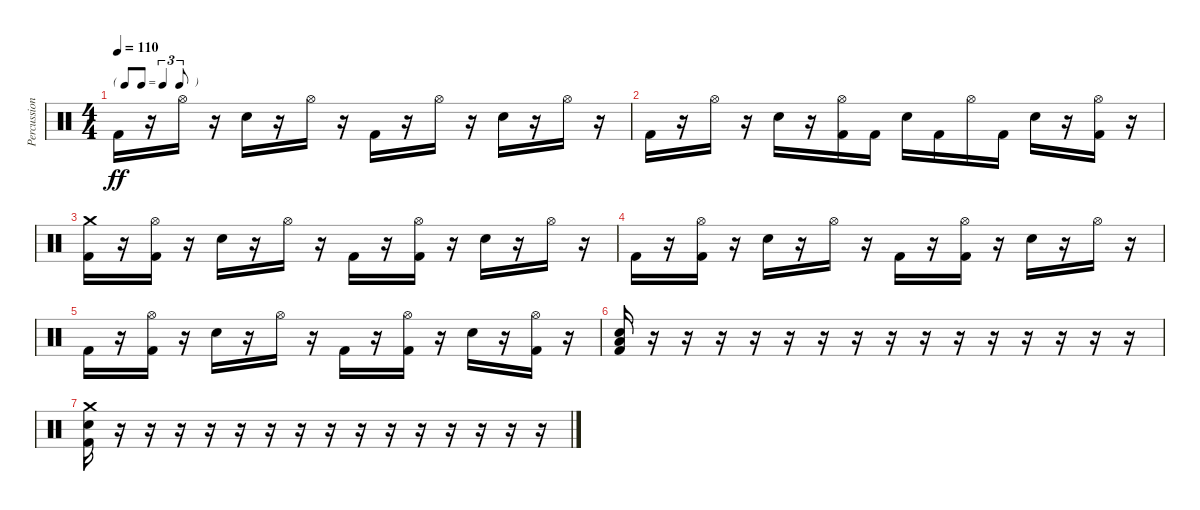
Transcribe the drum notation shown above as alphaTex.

\track ("Percussion" "Percussion") {instrument percussion}
\staff {score}
\articulation defaults
\ts (4 4)
\tf triplet8th
\tempo 110
\clef neutral
\ks c "Kick (hit) 2".16{dy ff}
r.16 "Hi-Hat (open)".16 r.16 "Electric Snare (hit)".16 r.16 "Hi-Hat (open)".16 r.16 "Kick (hit) 2".16 r.16 "Hi-Hat (open)".16 r.16 "Electric Snare (hit)".16 r.16 "Hi-Hat (open)".16 r.16 |
"Kick (hit) 2".16 r.16 "Hi-Hat (open)".16 r.16 "Electric Snare (hit)".16 r.16 ("Hi-Hat (open)" "Kick (hit) 2").16 "Kick (hit) 2".16 "Electric Snare (hit)".16 "Kick (hit) 2".16 "Hi-Hat (open)".16 "Kick (hit) 2".16 "Electric Snare (hit)".16 r.16 ("Hi-Hat (open)" "Kick (hit) 2").16 r.16 |
("Crash medium (hit)" "Kick (hit) 2").16 r.16 ("Hi-Hat (open)" "Kick (hit) 2").16 r.16 "Electric Snare (hit)".16 r.16 "Hi-Hat (open)".16 r.16 "Kick (hit) 2".16 r.16 ("Hi-Hat (open)" "Kick (hit) 2").16 r.16 "Electric Snare (hit)".16 r.16 "Hi-Hat (open)".16 r.16 |
"Kick (hit) 2".16 r.16 ("Hi-Hat (open)" "Kick (hit) 2").16 r.16 "Electric Snare (hit)".16 r.16 "Hi-Hat (open)".16 r.16 "Kick (hit) 2".16 r.16 ("Hi-Hat (open)" "Kick (hit) 2").16 r.16 "Electric Snare (hit)".16 r.16 "Hi-Hat (open)".16 r.16 |
"Kick (hit) 2".16 r.16 ("Hi-Hat (open)" "Kick (hit) 2").16 r.16 "Electric Snare (hit)".16 r.16 "Hi-Hat (open)".16 r.16 "Kick (hit) 2".16 r.16 ("Hi-Hat (open)" "Kick (hit) 2").16 r.16 "Electric Snare (hit)".16 r.16 ("Hi-Hat (open)" "Kick (hit) 2").16 r.16 |
("Low Floor Tom (hit)" "Electric Snare (hit)" "Kick (hit) 2").16 r.16 r.16 r.16 r.16 r.16 r.16 r.16 r.16 r.16 r.16 r.16 r.16 r.16 r.16 r.16 |
("Crash medium (hit)" "Electric Snare (hit)" "Kick (hit) 2").16 r.16 r.16 r.16 r.16 r.16 r.16 r.16 r.16 r.16 r.16 r.16 r.16 r.16 r.16 r.16
